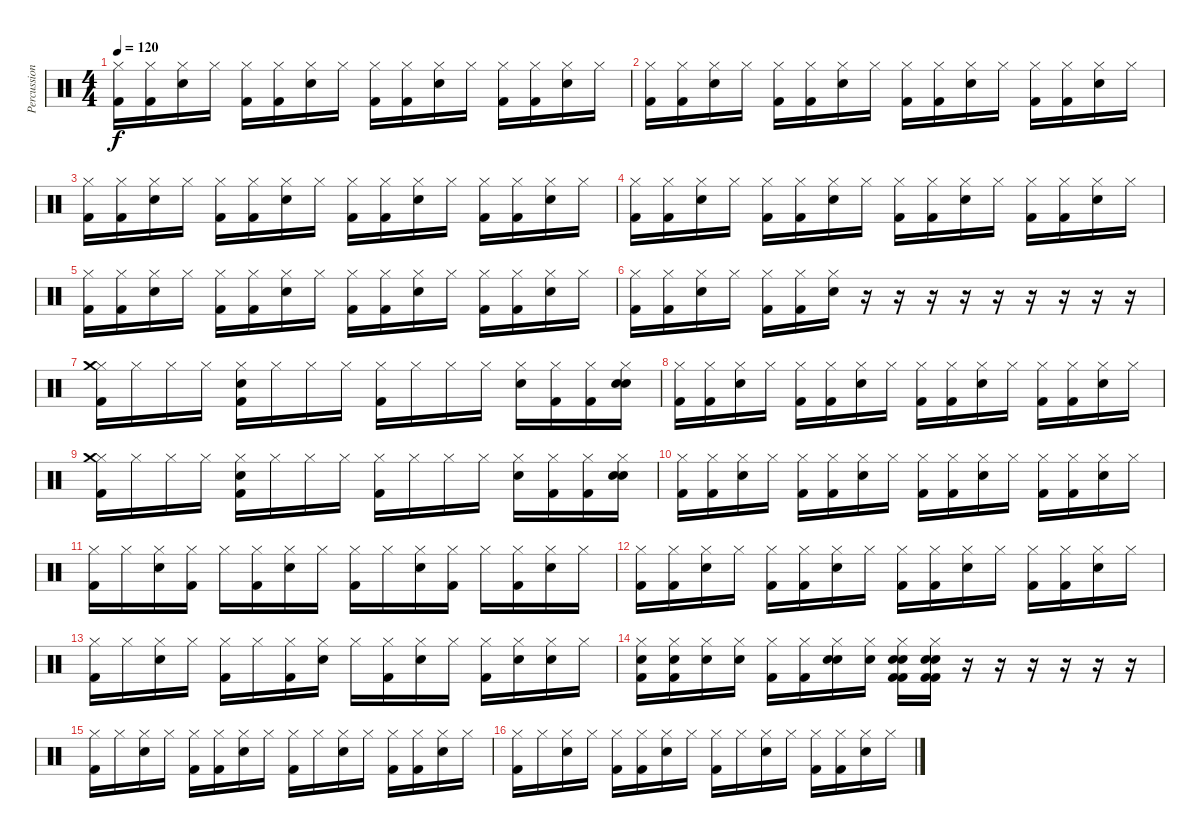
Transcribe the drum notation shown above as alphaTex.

\track ("Percussions" "Percussion") {instrument percussion}
\staff {score}
\articulation defaults
\ts (4 4)
\tempo 120
\clef neutral
\ks c
("Hi-Hat (closed)" "Kick (hit) 2").16{dy f} ("Hi-Hat (closed)" "Kick (hit) 2").16 ("Hi-Hat (closed)" "Electric Snare (hit)").16 "Hi-Hat (closed)".16 ("Hi-Hat (closed)" "Kick (hit) 2").16 ("Hi-Hat (closed)" "Kick (hit) 2").16 ("Hi-Hat (closed)" "Electric Snare (hit)").16 "Hi-Hat (closed)".16 ("Hi-Hat (closed)" "Kick (hit) 2").16 ("Hi-Hat (closed)" "Kick (hit) 2").16 ("Hi-Hat (closed)" "Electric Snare (hit)").16 "Hi-Hat (closed)".16 ("Hi-Hat (closed)" "Kick (hit) 2").16 ("Hi-Hat (closed)" "Kick (hit) 2").16 ("Hi-Hat (closed)" "Electric Snare (hit)").16 "Hi-Hat (closed)".16 |
("Hi-Hat (closed)" "Kick (hit) 2").16 ("Hi-Hat (closed)" "Kick (hit) 2").16 ("Hi-Hat (closed)" "Electric Snare (hit)").16 "Hi-Hat (closed)".16 ("Hi-Hat (closed)" "Kick (hit) 2").16 ("Hi-Hat (closed)" "Kick (hit) 2").16 ("Hi-Hat (closed)" "Electric Snare (hit)").16 "Hi-Hat (closed)".16 ("Hi-Hat (closed)" "Kick (hit) 2").16 ("Hi-Hat (closed)" "Kick (hit) 2").16 ("Hi-Hat (closed)" "Electric Snare (hit)").16 "Hi-Hat (closed)".16 ("Hi-Hat (closed)" "Kick (hit) 2").16 ("Hi-Hat (closed)" "Kick (hit) 2").16 ("Hi-Hat (closed)" "Electric Snare (hit)").16 "Hi-Hat (closed)".16 |
("Hi-Hat (closed)" "Kick (hit) 2").16 ("Hi-Hat (closed)" "Kick (hit) 2").16 ("Hi-Hat (closed)" "Electric Snare (hit)").16 "Hi-Hat (closed)".16 ("Hi-Hat (closed)" "Kick (hit) 2").16 ("Hi-Hat (closed)" "Kick (hit) 2").16 ("Hi-Hat (closed)" "Electric Snare (hit)").16 "Hi-Hat (closed)".16 ("Hi-Hat (closed)" "Kick (hit) 2").16 ("Hi-Hat (closed)" "Kick (hit) 2").16 ("Hi-Hat (closed)" "Electric Snare (hit)").16 "Hi-Hat (closed)".16 ("Hi-Hat (closed)" "Kick (hit) 2").16 ("Hi-Hat (closed)" "Kick (hit) 2").16 ("Hi-Hat (closed)" "Electric Snare (hit)").16 "Hi-Hat (closed)".16 |
("Hi-Hat (closed)" "Kick (hit) 2").16 ("Hi-Hat (closed)" "Kick (hit) 2").16 ("Hi-Hat (closed)" "Electric Snare (hit)").16 "Hi-Hat (closed)".16 ("Hi-Hat (closed)" "Kick (hit) 2").16 ("Hi-Hat (closed)" "Kick (hit) 2").16 ("Hi-Hat (closed)" "Electric Snare (hit)").16 "Hi-Hat (closed)".16 ("Hi-Hat (closed)" "Kick (hit) 2").16 ("Hi-Hat (closed)" "Kick (hit) 2").16 ("Hi-Hat (closed)" "Electric Snare (hit)").16 "Hi-Hat (closed)".16 ("Hi-Hat (closed)" "Kick (hit) 2").16 ("Hi-Hat (closed)" "Kick (hit) 2").16 ("Hi-Hat (closed)" "Electric Snare (hit)").16 "Hi-Hat (closed)".16 |
("Hi-Hat (closed)" "Kick (hit) 2").16 ("Hi-Hat (closed)" "Kick (hit) 2").16 ("Hi-Hat (closed)" "Electric Snare (hit)").16 "Hi-Hat (closed)".16 ("Hi-Hat (closed)" "Kick (hit) 2").16 ("Hi-Hat (closed)" "Kick (hit) 2").16 ("Hi-Hat (closed)" "Electric Snare (hit)").16 "Hi-Hat (closed)".16 ("Hi-Hat (closed)" "Kick (hit) 2").16 ("Hi-Hat (closed)" "Kick (hit) 2").16 ("Hi-Hat (closed)" "Electric Snare (hit)").16 "Hi-Hat (closed)".16 ("Hi-Hat (closed)" "Kick (hit) 2").16 ("Hi-Hat (closed)" "Kick (hit) 2").16 ("Hi-Hat (closed)" "Electric Snare (hit)").16 "Hi-Hat (closed)".16 |
("Hi-Hat (closed)" "Kick (hit) 2").16 ("Hi-Hat (closed)" "Kick (hit) 2").16 ("Hi-Hat (closed)" "Electric Snare (hit)").16 "Hi-Hat (closed)".16 ("Hi-Hat (closed)" "Kick (hit) 2").16 ("Hi-Hat (closed)" "Kick (hit) 2").16 ("Hi-Hat (closed)" "Electric Snare (hit)").16 r.16 r.16 r.16 r.16 r.16 r.16 r.16 r.16 r.16 |
("Hi-Hat (closed)" "Crash medium (hit)" "Kick (hit) 2").16 "Hi-Hat (closed)".16 "Hi-Hat (closed)".16 "Hi-Hat (closed)".16 ("Hi-Hat (closed)" "Electric Snare (hit)" "Kick (hit) 2").16 "Hi-Hat (closed)".16 "Hi-Hat (closed)".16 "Hi-Hat (closed)".16 ("Hi-Hat (closed)" "Kick (hit) 2").16 "Hi-Hat (closed)".16 "Hi-Hat (closed)".16 "Hi-Hat (closed)".16 ("Hi-Hat (closed)" "Electric Snare (hit)").16 ("Hi-Hat (closed)" "Kick (hit) 2").16 ("Hi-Hat (closed)" "Kick (hit) 2").16 ("Hi-Hat (closed)" "Electric Snare (hit)" "Snare (hit) 2").16 |
("Hi-Hat (closed)" "Kick (hit) 2").16 ("Hi-Hat (closed)" "Kick (hit) 2").16 ("Hi-Hat (closed)" "Electric Snare (hit)").16 "Hi-Hat (closed)".16 ("Hi-Hat (closed)" "Kick (hit) 2").16 ("Hi-Hat (closed)" "Kick (hit) 2").16 ("Hi-Hat (closed)" "Electric Snare (hit)").16 "Hi-Hat (closed)".16 ("Hi-Hat (closed)" "Kick (hit) 2").16 ("Hi-Hat (closed)" "Kick (hit) 2").16 ("Hi-Hat (closed)" "Electric Snare (hit)").16 "Hi-Hat (closed)".16 ("Hi-Hat (closed)" "Kick (hit) 2").16 ("Hi-Hat (closed)" "Kick (hit) 2").16 ("Hi-Hat (closed)" "Electric Snare (hit)").16 "Hi-Hat (closed)".16 |
("Hi-Hat (closed)" "Crash medium (hit)" "Kick (hit) 2").16 "Hi-Hat (closed)".16 "Hi-Hat (closed)".16 "Hi-Hat (closed)".16 ("Hi-Hat (closed)" "Electric Snare (hit)" "Kick (hit) 2").16 "Hi-Hat (closed)".16 "Hi-Hat (closed)".16 "Hi-Hat (closed)".16 ("Hi-Hat (closed)" "Kick (hit) 2").16 "Hi-Hat (closed)".16 "Hi-Hat (closed)".16 "Hi-Hat (closed)".16 ("Hi-Hat (closed)" "Electric Snare (hit)").16 ("Hi-Hat (closed)" "Kick (hit) 2").16 ("Hi-Hat (closed)" "Kick (hit) 2").16 ("Hi-Hat (closed)" "Electric Snare (hit)" "Snare (hit) 2").16 |
("Hi-Hat (closed)" "Kick (hit) 2").16 ("Hi-Hat (closed)" "Kick (hit) 2").16 ("Hi-Hat (closed)" "Electric Snare (hit)").16 "Hi-Hat (closed)".16 ("Hi-Hat (closed)" "Kick (hit) 2").16 ("Hi-Hat (closed)" "Kick (hit) 2").16 ("Hi-Hat (closed)" "Electric Snare (hit)").16 "Hi-Hat (closed)".16 ("Hi-Hat (closed)" "Kick (hit) 2").16 ("Hi-Hat (closed)" "Kick (hit) 2").16 ("Hi-Hat (closed)" "Electric Snare (hit)").16 "Hi-Hat (closed)".16 ("Hi-Hat (closed)" "Kick (hit) 2").16 ("Hi-Hat (closed)" "Kick (hit) 2").16 ("Hi-Hat (closed)" "Electric Snare (hit)").16 "Hi-Hat (closed)".16 |
("Hi-Hat (closed)" "Kick (hit) 2").16 "Hi-Hat (closed)".16 ("Hi-Hat (closed)" "Electric Snare (hit)").16 ("Hi-Hat (closed)" "Kick (hit) 2").16 "Hi-Hat (closed)".16 ("Hi-Hat (closed)" "Kick (hit) 2").16 ("Hi-Hat (closed)" "Electric Snare (hit)").16 "Hi-Hat (closed)".16 ("Hi-Hat (closed)" "Kick (hit) 2").16 "Hi-Hat (closed)".16 ("Hi-Hat (closed)" "Electric Snare (hit)").16 ("Hi-Hat (closed)" "Kick (hit) 2").16 "Hi-Hat (closed)".16 ("Hi-Hat (closed)" "Kick (hit) 2").16 ("Hi-Hat (closed)" "Electric Snare (hit)").16 "Hi-Hat (closed)".16 |
("Hi-Hat (closed)" "Kick (hit) 2").16 ("Hi-Hat (closed)" "Kick (hit) 2").16 ("Hi-Hat (closed)" "Electric Snare (hit)").16 "Hi-Hat (closed)".16 ("Hi-Hat (closed)" "Kick (hit) 2").16 ("Hi-Hat (closed)" "Kick (hit) 2").16 ("Hi-Hat (closed)" "Electric Snare (hit)").16 "Hi-Hat (closed)".16 ("Hi-Hat (closed)" "Kick (hit) 2").16 ("Hi-Hat (closed)" "Kick (hit) 2").16 ("Hi-Hat (closed)" "Electric Snare (hit)").16 "Hi-Hat (closed)".16 ("Hi-Hat (closed)" "Kick (hit) 2").16 ("Hi-Hat (closed)" "Kick (hit) 2").16 ("Hi-Hat (closed)" "Electric Snare (hit)").16 "Hi-Hat (closed)".16 |
("Hi-Hat (closed)" "Kick (hit) 2").16 "Hi-Hat (closed)".16 ("Hi-Hat (closed)" "Electric Snare (hit)").16 "Hi-Hat (closed)".16 ("Hi-Hat (closed)" "Kick (hit) 2").16 "Hi-Hat (closed)".16 ("Hi-Hat (closed)" "Kick (hit) 2").16 ("Hi-Hat (closed)" "Electric Snare (hit)").16 "Hi-Hat (closed)".16 ("Hi-Hat (closed)" "Kick (hit) 2").16 ("Hi-Hat (closed)" "Electric Snare (hit)").16 "Hi-Hat (closed)".16 ("Hi-Hat (closed)" "Kick (hit) 2").16 ("Hi-Hat (closed)" "Electric Snare (hit)").16 ("Hi-Hat (closed)" "Snare (hit) 2").16 "Hi-Hat (closed)".16 |
("Hi-Hat (closed)" "Electric Snare (hit)" "Kick (hit) 2").16 ("Hi-Hat (closed)" "Electric Snare (hit)" "Kick (hit) 2").16 ("Hi-Hat (closed)" "Electric Snare (hit)").16 ("Hi-Hat (closed)" "Snare (hit) 2").16 ("Hi-Hat (closed)" "Kick (hit) 2").16 ("Hi-Hat (closed)" "Kick (hit) 2").16 ("Hi-Hat (closed)" "Snare (hit) 2" "Electric Snare (hit)").16 ("Hi-Hat (closed)" "Electric Snare (hit)").16 ("Hi-Hat (closed)" "Snare (hit) 2" "Electric Snare (hit)" "Kick (hit) 2" "Kick (hit) 2").16 ("Hi-Hat (closed)" "Snare (hit) 2" "Electric Snare (hit)" "Kick (hit) 2" "Kick (hit) 2").16 r.16 r.16 r.16 r.16 r.16 r.16 |
("Hi-Hat (closed)" "Kick (hit) 2").16 "Hi-Hat (closed)".16 ("Hi-Hat (closed)" "Electric Snare (hit)").16 "Hi-Hat (closed)".16 ("Hi-Hat (closed)" "Kick (hit) 2").16 ("Hi-Hat (closed)" "Kick (hit) 2").16 ("Hi-Hat (closed)" "Electric Snare (hit)").16 "Hi-Hat (closed)".16 ("Hi-Hat (closed)" "Kick (hit) 2").16 "Hi-Hat (closed)".16 ("Hi-Hat (closed)" "Electric Snare (hit)").16 "Hi-Hat (closed)".16 ("Hi-Hat (closed)" "Kick (hit) 2").16 ("Hi-Hat (closed)" "Kick (hit) 2").16 ("Hi-Hat (closed)" "Electric Snare (hit)").16 "Hi-Hat (closed)".16 |
("Hi-Hat (closed)" "Kick (hit) 2").16 "Hi-Hat (closed)".16 ("Hi-Hat (closed)" "Electric Snare (hit)").16 "Hi-Hat (closed)".16 ("Hi-Hat (closed)" "Kick (hit) 2").16 ("Hi-Hat (closed)" "Kick (hit) 2").16 ("Hi-Hat (closed)" "Electric Snare (hit)").16 "Hi-Hat (closed)".16 ("Hi-Hat (closed)" "Kick (hit) 2").16 "Hi-Hat (closed)".16 ("Hi-Hat (closed)" "Electric Snare (hit)").16 "Hi-Hat (closed)".16 ("Hi-Hat (closed)" "Kick (hit) 2").16 ("Hi-Hat (closed)" "Kick (hit) 2").16 ("Hi-Hat (closed)" "Electric Snare (hit)").16 "Hi-Hat (closed)".16
